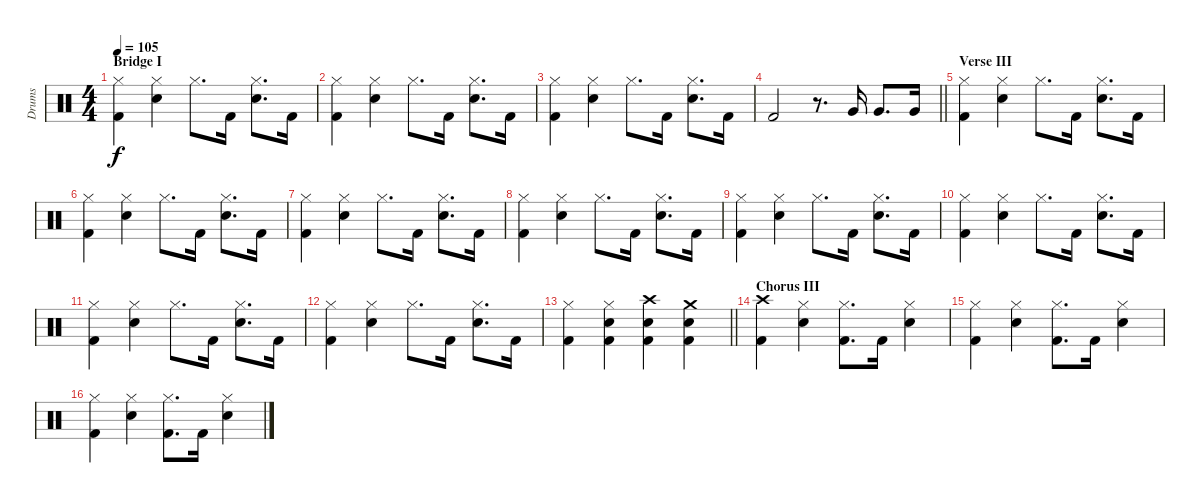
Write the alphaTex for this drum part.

\track ("Drums" "Drums") {instrument percussion}
\staff {score}
\articulation defaults
\ts (4 4)
\section ("" "Bridge I")
\tempo 105
\clef neutral
\ks c
("Hi-Hat (closed)" "Kick (hit) 2").4{dy f} ("Hi-Hat (closed)" "Snare (hit) 2").4 "Hi-Hat (closed)".8{d} "Kick (hit) 2".16 ("Hi-Hat (closed)" "Snare (hit) 2").8{d} "Kick (hit) 2".16 |
("Hi-Hat (closed)" "Kick (hit) 2").4 ("Hi-Hat (closed)" "Snare (hit) 2").4 "Hi-Hat (closed)".8{d} "Kick (hit) 2".16 ("Hi-Hat (closed)" "Snare (hit) 2").8{d} "Kick (hit) 2".16 |
("Hi-Hat (closed)" "Kick (hit) 2").4 ("Hi-Hat (closed)" "Snare (hit) 2").4 "Hi-Hat (closed)".8{d} "Kick (hit) 2".16 ("Hi-Hat (closed)" "Snare (hit) 2").8{d} "Kick (hit) 2".16 |
\barLineRight lightlight "Kick (hit) 2".2
r.8{d} "Very Low Tom (hit)".16 "Very Low Tom (hit)".8{d} "Very Low Tom (hit)".16 |
\section ("" "Verse III")
("Hi-Hat (closed)" "Kick (hit) 2").4 ("Hi-Hat (closed)" "Snare (hit) 2").4 "Hi-Hat (closed)".8{d} "Kick (hit) 2".16 ("Hi-Hat (closed)" "Snare (hit) 2").8{d} "Kick (hit) 2".16 |
("Hi-Hat (closed)" "Kick (hit) 2").4 ("Hi-Hat (closed)" "Snare (hit) 2").4 "Hi-Hat (closed)".8{d} "Kick (hit) 2".16 ("Hi-Hat (closed)" "Snare (hit) 2").8{d} "Kick (hit) 2".16 |
("Hi-Hat (closed)" "Kick (hit) 2").4 ("Hi-Hat (closed)" "Snare (hit) 2").4 "Hi-Hat (closed)".8{d} "Kick (hit) 2".16 ("Hi-Hat (closed)" "Snare (hit) 2").8{d} "Kick (hit) 2".16 |
("Hi-Hat (closed)" "Kick (hit) 2").4 ("Hi-Hat (closed)" "Snare (hit) 2").4 "Hi-Hat (closed)".8{d} "Kick (hit) 2".16 ("Hi-Hat (closed)" "Snare (hit) 2").8{d} "Kick (hit) 2".16 |
("Hi-Hat (closed)" "Kick (hit) 2").4 ("Hi-Hat (closed)" "Snare (hit) 2").4 "Hi-Hat (closed)".8{d} "Kick (hit) 2".16 ("Hi-Hat (closed)" "Snare (hit) 2").8{d} "Kick (hit) 2".16 |
("Hi-Hat (closed)" "Kick (hit) 2").4 ("Hi-Hat (closed)" "Snare (hit) 2").4 "Hi-Hat (closed)".8{d} "Kick (hit) 2".16 ("Hi-Hat (closed)" "Snare (hit) 2").8{d} "Kick (hit) 2".16 |
("Hi-Hat (closed)" "Kick (hit) 2").4 ("Hi-Hat (closed)" "Snare (hit) 2").4 "Hi-Hat (closed)".8{d} "Kick (hit) 2".16 ("Hi-Hat (closed)" "Snare (hit) 2").8{d} "Kick (hit) 2".16 |
("Hi-Hat (closed)" "Kick (hit) 2").4 ("Hi-Hat (closed)" "Snare (hit) 2").4 "Hi-Hat (closed)".8{d} "Kick (hit) 2".16 ("Hi-Hat (closed)" "Snare (hit) 2").8{d} "Kick (hit) 2".16 |
\barLineRight lightlight
("Hi-Hat (closed)" "Kick (hit) 2").4 ("Hi-Hat (closed)" "Snare (hit) 2" "Kick (hit) 2").4 ("Crash high (hit)" "Snare (hit) 2" "Kick (hit) 2").4 ("Crash medium (hit)" "Snare (hit) 2" "Kick (hit) 2").4 |
\section ("" "Chorus III")
("Crash high (hit)" "Kick (hit) 2").4 ("Hi-Hat (closed)" "Snare (hit) 2").4 ("Hi-Hat (closed)" "Kick (hit) 2").8{d} "Kick (hit) 2".16 ("Hi-Hat (closed)" "Snare (hit) 2").4 |
("Hi-Hat (closed)" "Kick (hit) 2").4 ("Hi-Hat (closed)" "Snare (hit) 2").4 ("Hi-Hat (closed)" "Kick (hit) 2").8{d} "Kick (hit) 2".16 ("Hi-Hat (closed)" "Snare (hit) 2").4 |
("Hi-Hat (closed)" "Kick (hit) 2").4 ("Hi-Hat (closed)" "Snare (hit) 2").4 ("Hi-Hat (closed)" "Kick (hit) 2").8{d} "Kick (hit) 2".16 ("Hi-Hat (closed)" "Snare (hit) 2").4
